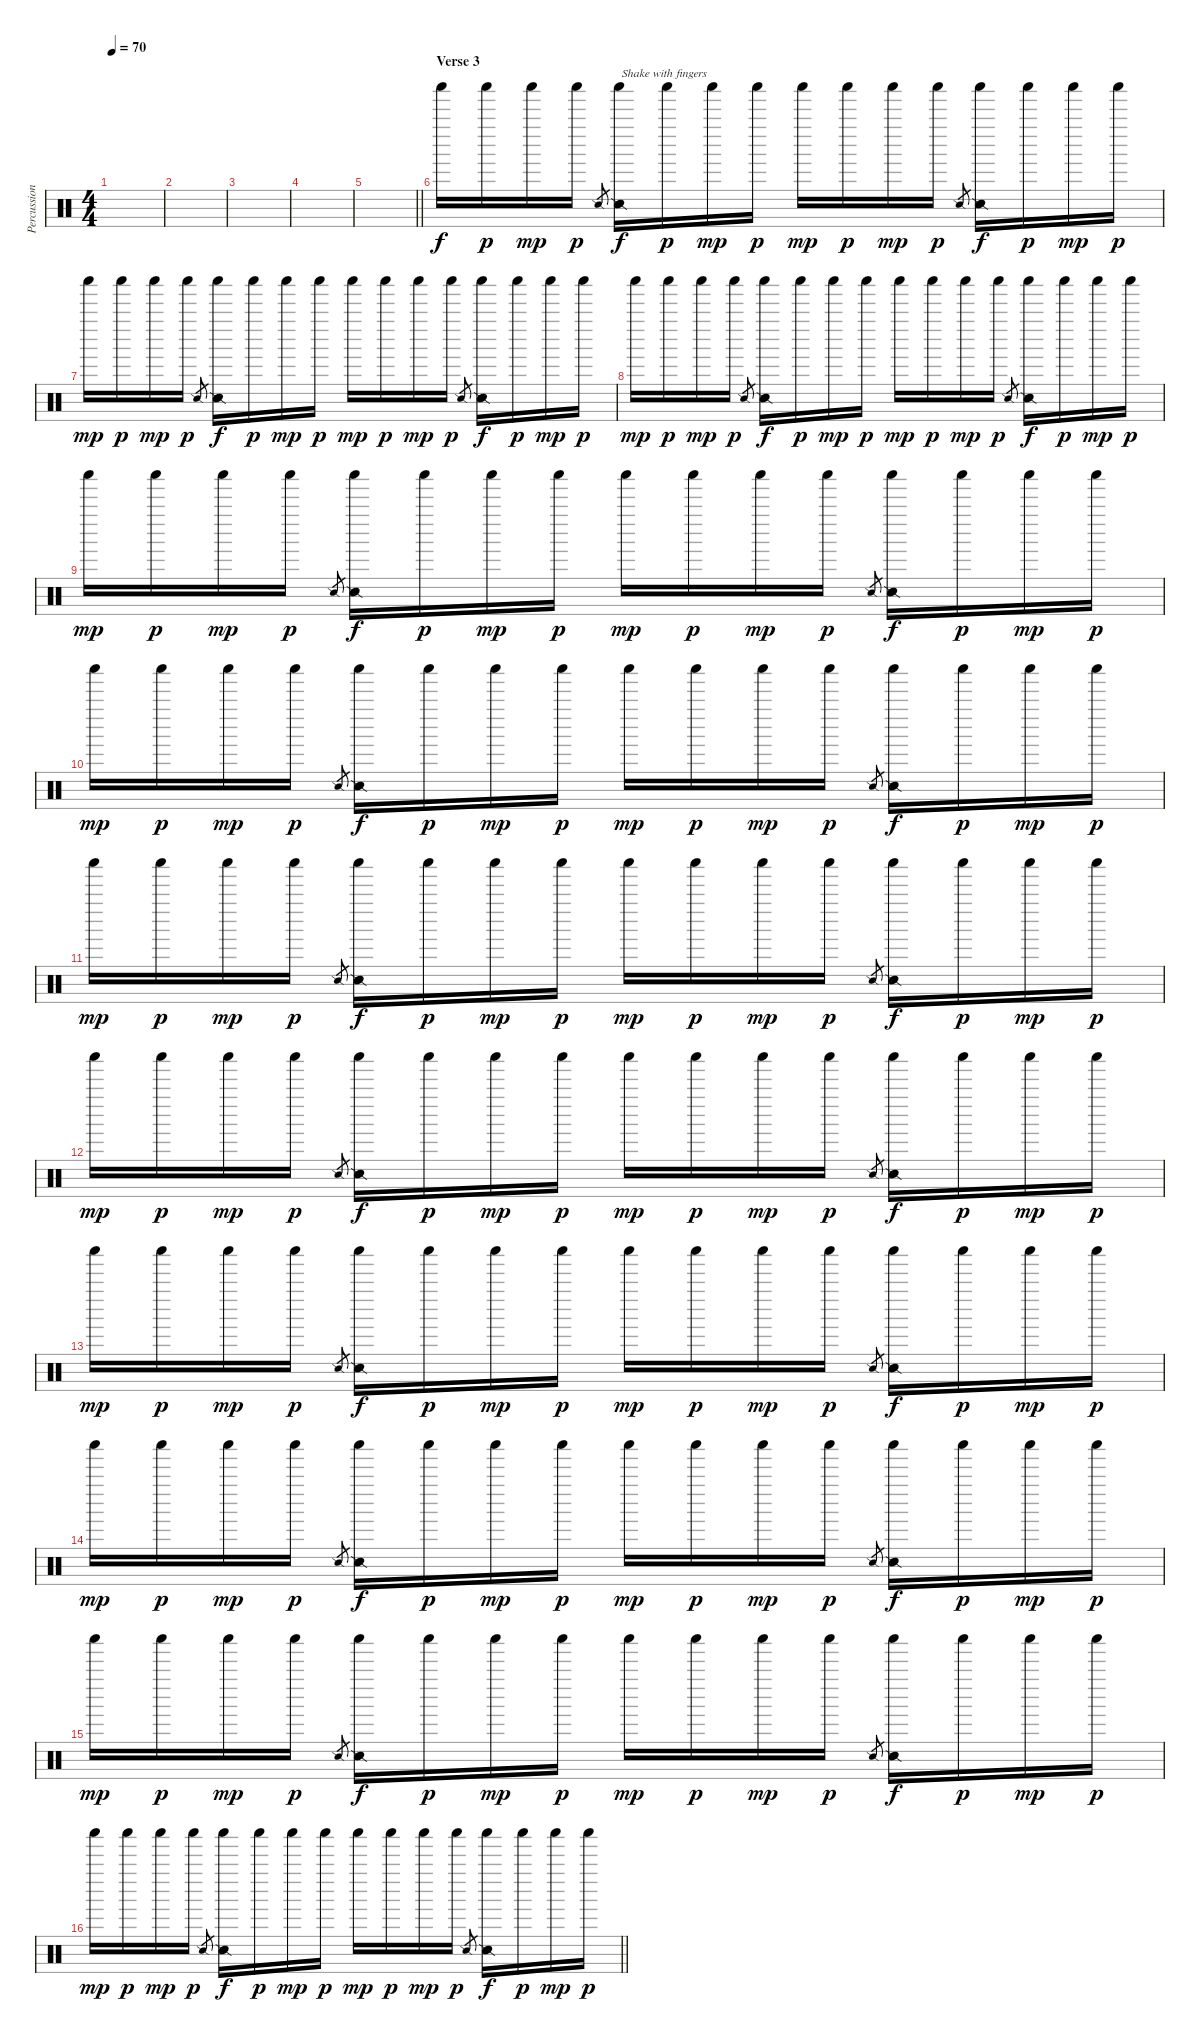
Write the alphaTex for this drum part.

\track ("Percussion" "Percussion") {instrument percussion}
\staff {score}
\articulation defaults
\ts (4 4)
\tempo 70
\clef neutral
\ks c
|
|
|
|
\barLineRight lightlight
|
\section ("" "Verse 3")
"Shaker (hit)".16 "Shaker (hit)".16{dy p} "Shaker (hit)".16{dy mp} "Shaker (hit)".16{dy p} "Snare (side stick) 2".8{gr} ("Shaker (hit)" "Snare (side stick) 2").16{txt "Shake with fingers" dy f} "Shaker (hit)".16{dy p} "Shaker (hit)".16{dy mp} "Shaker (hit)".16{dy p} "Shaker (hit)".16{dy mp} "Shaker (hit)".16{dy p} "Shaker (hit)".16{dy mp} "Shaker (hit)".16{dy p} "Snare (side stick) 2".8{gr} ("Shaker (hit)" "Snare (side stick) 2").16{dy f} "Shaker (hit)".16{dy p} "Shaker (hit)".16{dy mp} "Shaker (hit)".16{dy p} |
"Shaker (hit)".16{dy mp} "Shaker (hit)".16{dy p} "Shaker (hit)".16{dy mp} "Shaker (hit)".16{dy p} "Snare (side stick) 2".8{gr} ("Shaker (hit)" "Snare (side stick) 2").16{dy f} "Shaker (hit)".16{dy p} "Shaker (hit)".16{dy mp} "Shaker (hit)".16{dy p} "Shaker (hit)".16{dy mp} "Shaker (hit)".16{dy p} "Shaker (hit)".16{dy mp} "Shaker (hit)".16{dy p} "Snare (side stick) 2".8{gr} ("Shaker (hit)" "Snare (side stick) 2").16{dy f} "Shaker (hit)".16{dy p} "Shaker (hit)".16{dy mp} "Shaker (hit)".16{dy p} |
"Shaker (hit)".16{dy mp} "Shaker (hit)".16{dy p} "Shaker (hit)".16{dy mp} "Shaker (hit)".16{dy p} "Snare (side stick) 2".8{gr} ("Shaker (hit)" "Snare (side stick) 2").16{dy f} "Shaker (hit)".16{dy p} "Shaker (hit)".16{dy mp} "Shaker (hit)".16{dy p} "Shaker (hit)".16{dy mp} "Shaker (hit)".16{dy p} "Shaker (hit)".16{dy mp} "Shaker (hit)".16{dy p} "Snare (side stick) 2".8{gr} ("Shaker (hit)" "Snare (side stick) 2").16{dy f} "Shaker (hit)".16{dy p} "Shaker (hit)".16{dy mp} "Shaker (hit)".16{dy p} |
"Shaker (hit)".16{dy mp} "Shaker (hit)".16{dy p} "Shaker (hit)".16{dy mp} "Shaker (hit)".16{dy p} "Snare (side stick) 2".8{gr} ("Shaker (hit)" "Snare (side stick) 2").16{dy f} "Shaker (hit)".16{dy p} "Shaker (hit)".16{dy mp} "Shaker (hit)".16{dy p} "Shaker (hit)".16{dy mp} "Shaker (hit)".16{dy p} "Shaker (hit)".16{dy mp} "Shaker (hit)".16{dy p} "Snare (side stick) 2".8{gr} ("Shaker (hit)" "Snare (side stick) 2").16{dy f} "Shaker (hit)".16{dy p} "Shaker (hit)".16{dy mp} "Shaker (hit)".16{dy p} |
"Shaker (hit)".16{dy mp} "Shaker (hit)".16{dy p} "Shaker (hit)".16{dy mp} "Shaker (hit)".16{dy p} "Snare (side stick) 2".8{gr} ("Shaker (hit)" "Snare (side stick) 2").16{dy f} "Shaker (hit)".16{dy p} "Shaker (hit)".16{dy mp} "Shaker (hit)".16{dy p} "Shaker (hit)".16{dy mp} "Shaker (hit)".16{dy p} "Shaker (hit)".16{dy mp} "Shaker (hit)".16{dy p} "Snare (side stick) 2".8{gr} ("Shaker (hit)" "Snare (side stick) 2").16{dy f} "Shaker (hit)".16{dy p} "Shaker (hit)".16{dy mp} "Shaker (hit)".16{dy p} |
"Shaker (hit)".16{dy mp} "Shaker (hit)".16{dy p} "Shaker (hit)".16{dy mp} "Shaker (hit)".16{dy p} "Snare (side stick) 2".8{gr} ("Shaker (hit)" "Snare (side stick) 2").16{dy f} "Shaker (hit)".16{dy p} "Shaker (hit)".16{dy mp} "Shaker (hit)".16{dy p} "Shaker (hit)".16{dy mp} "Shaker (hit)".16{dy p} "Shaker (hit)".16{dy mp} "Shaker (hit)".16{dy p} "Snare (side stick) 2".8{gr} ("Shaker (hit)" "Snare (side stick) 2").16{dy f} "Shaker (hit)".16{dy p} "Shaker (hit)".16{dy mp} "Shaker (hit)".16{dy p} |
"Shaker (hit)".16{dy mp} "Shaker (hit)".16{dy p} "Shaker (hit)".16{dy mp} "Shaker (hit)".16{dy p} "Snare (side stick) 2".8{gr} ("Shaker (hit)" "Snare (side stick) 2").16{dy f} "Shaker (hit)".16{dy p} "Shaker (hit)".16{dy mp} "Shaker (hit)".16{dy p} "Shaker (hit)".16{dy mp} "Shaker (hit)".16{dy p} "Shaker (hit)".16{dy mp} "Shaker (hit)".16{dy p} "Snare (side stick) 2".8{gr} ("Shaker (hit)" "Snare (side stick) 2").16{dy f} "Shaker (hit)".16{dy p} "Shaker (hit)".16{dy mp} "Shaker (hit)".16{dy p} |
"Shaker (hit)".16{dy mp} "Shaker (hit)".16{dy p} "Shaker (hit)".16{dy mp} "Shaker (hit)".16{dy p} "Snare (side stick) 2".8{gr} ("Shaker (hit)" "Snare (side stick) 2").16{dy f} "Shaker (hit)".16{dy p} "Shaker (hit)".16{dy mp} "Shaker (hit)".16{dy p} "Shaker (hit)".16{dy mp} "Shaker (hit)".16{dy p} "Shaker (hit)".16{dy mp} "Shaker (hit)".16{dy p} "Snare (side stick) 2".8{gr} ("Shaker (hit)" "Snare (side stick) 2").16{dy f} "Shaker (hit)".16{dy p} "Shaker (hit)".16{dy mp} "Shaker (hit)".16{dy p} |
"Shaker (hit)".16{dy mp} "Shaker (hit)".16{dy p} "Shaker (hit)".16{dy mp} "Shaker (hit)".16{dy p} "Snare (side stick) 2".8{gr} ("Shaker (hit)" "Snare (side stick) 2").16{dy f} "Shaker (hit)".16{dy p} "Shaker (hit)".16{dy mp} "Shaker (hit)".16{dy p} "Shaker (hit)".16{dy mp} "Shaker (hit)".16{dy p} "Shaker (hit)".16{dy mp} "Shaker (hit)".16{dy p} "Snare (side stick) 2".8{gr} ("Shaker (hit)" "Snare (side stick) 2").16{dy f} "Shaker (hit)".16{dy p} "Shaker (hit)".16{dy mp} "Shaker (hit)".16{dy p} |
"Shaker (hit)".16{dy mp} "Shaker (hit)".16{dy p} "Shaker (hit)".16{dy mp} "Shaker (hit)".16{dy p} "Snare (side stick) 2".8{gr} ("Shaker (hit)" "Snare (side stick) 2").16{dy f} "Shaker (hit)".16{dy p} "Shaker (hit)".16{dy mp} "Shaker (hit)".16{dy p} "Shaker (hit)".16{dy mp} "Shaker (hit)".16{dy p} "Shaker (hit)".16{dy mp} "Shaker (hit)".16{dy p} "Snare (side stick) 2".8{gr} ("Shaker (hit)" "Snare (side stick) 2").16{dy f} "Shaker (hit)".16{dy p} "Shaker (hit)".16{dy mp} "Shaker (hit)".16{dy p} |
\barLineRight lightlight "Shaker (hit)".16{dy mp} "Shaker (hit)".16{dy p} "Shaker (hit)".16{dy mp} "Shaker (hit)".16{dy p} "Snare (side stick) 2".8{gr}
("Shaker (hit)" "Snare (side stick) 2").16{dy f} "Shaker (hit)".16{dy p} "Shaker (hit)".16{dy mp} "Shaker (hit)".16{dy p} "Shaker (hit)".16{dy mp} "Shaker (hit)".16{dy p} "Shaker (hit)".16{dy mp} "Shaker (hit)".16{dy p} "Snare (side stick) 2".8{gr} ("Shaker (hit)" "Snare (side stick) 2").16{dy f} "Shaker (hit)".16{dy p} "Shaker (hit)".16{dy mp} "Shaker (hit)".16{dy p}
